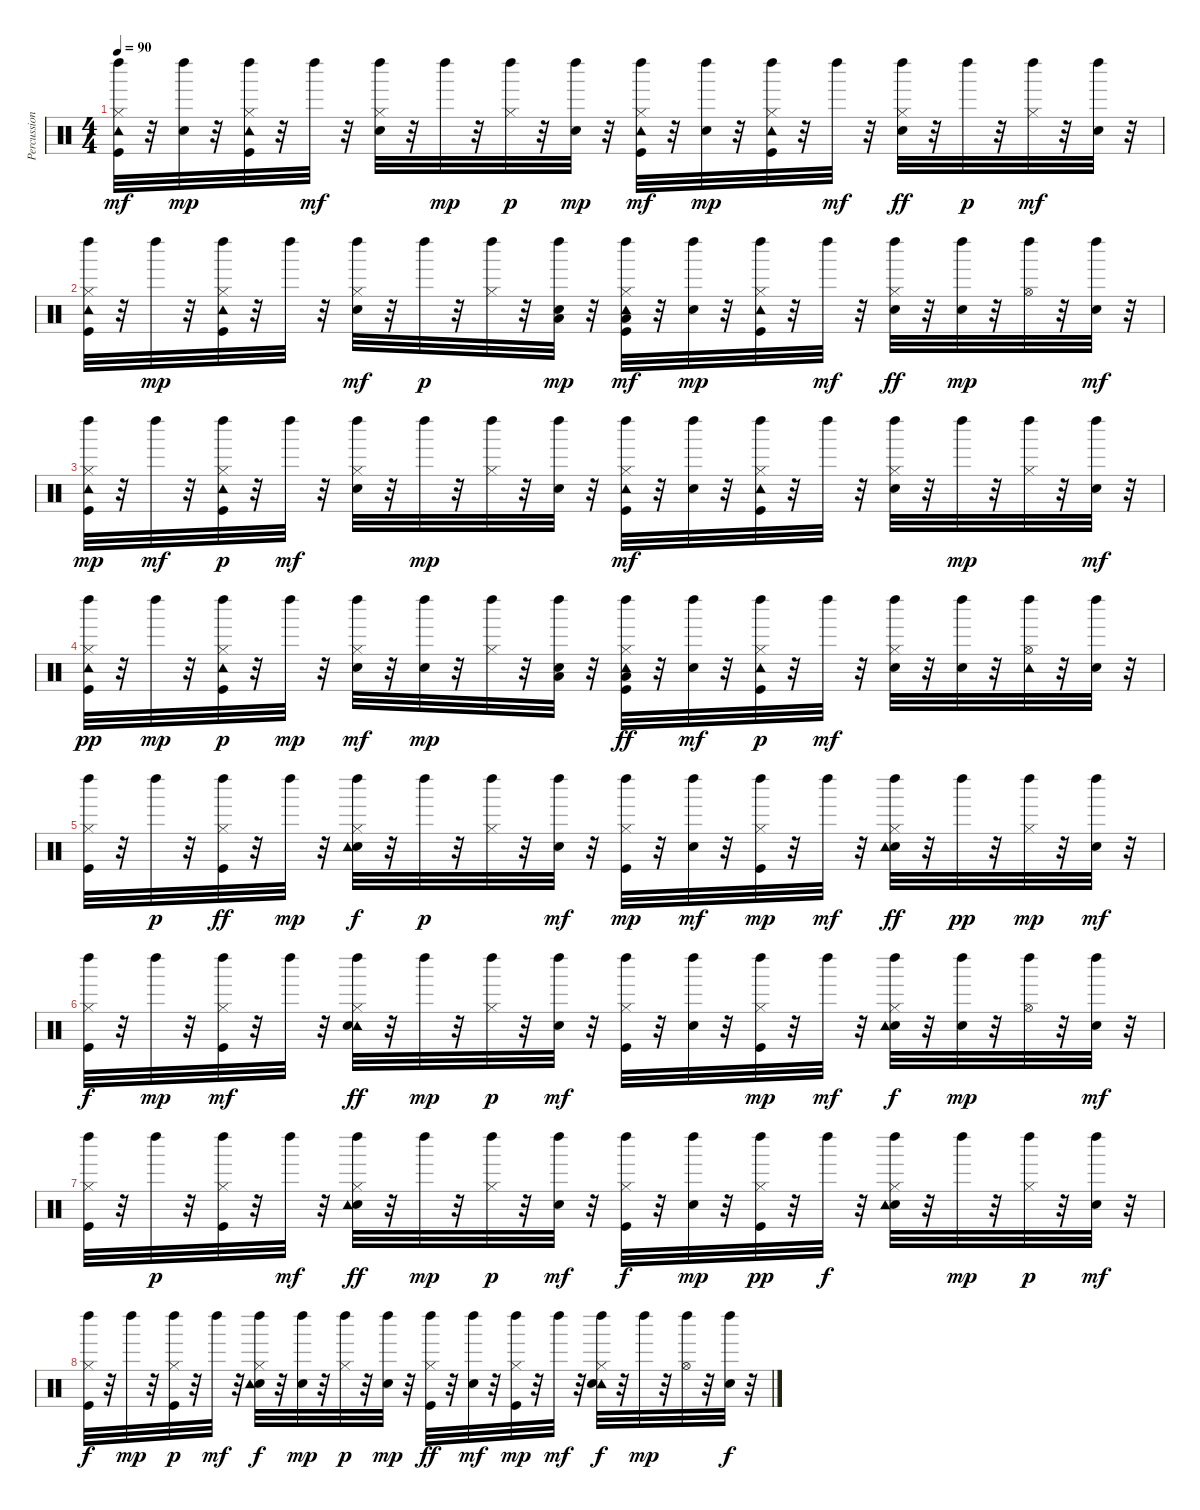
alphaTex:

\track ("Percussions" "Percussion") {instrument percussion}
\staff {score}
\articulation defaults
\ts (4 4)
\tempo 90
\clef neutral
\ks c
("Tambourine (hit)" "Kick (hit)" "Left Maraca (hit)" "Hi-Hat (closed)").32{dy mf} r.32 ("Electric Snare (hit)" "Left Maraca (hit)").32{dy mp} r.32 ("Kick (hit)" "Hi-Hat (closed)" "Tambourine (hit)" "Left Maraca (hit)").32 r.32 "Left Maraca (hit)".32{dy mf} r.32 ("Hi-Hat (closed)" "Left Maraca (hit)" "Electric Snare (hit)").32 r.32 "Left Maraca (hit)".32{dy mp} r.32 ("Hi-Hat (closed)" "Left Maraca (hit)").32{dy p} r.32 ("Electric Snare (hit)" "Left Maraca (hit)").32{dy mp} r.32 ("Kick (hit)" "Tambourine (hit)" "Hi-Hat (closed)" "Left Maraca (hit)").32{dy mf} r.32 ("Electric Snare (hit)" "Left Maraca (hit)").32{dy mp} r.32 ("Kick (hit)" "Tambourine (hit)" "Hi-Hat (closed)" "Left Maraca (hit)").32 r.32 "Left Maraca (hit)".32{dy mf} r.32 ("Left Maraca (hit)" "Hi-Hat (closed)" "Electric Snare (hit)").32{dy ff} r.32 "Left Maraca (hit)".32{dy p} r.32 ("Left Maraca (hit)" "Hi-Hat (closed)").32{dy mf} r.32 ("Left Maraca (hit)" "Electric Snare (hit)").32 r.32 |
("Kick (hit)" "Tambourine (hit)" "Left Maraca (hit)" "Hi-Hat (closed)").32 r.32 "Left Maraca (hit)".32{dy mp} r.32 ("Hi-Hat (closed)" "Kick (hit)" "Tambourine (hit)" "Left Maraca (hit)").32 r.32 "Left Maraca (hit)".32 r.32 ("Hi-Hat (closed)" "Electric Snare (hit)" "Left Maraca (hit)").32{dy mf} r.32 "Left Maraca (hit)".32{dy p} r.32 ("Hi-Hat (closed)" "Left Maraca (hit)").32 r.32 ("Low Tom (hit)" "Electric Snare (hit)" "Left Maraca (hit)").32{dy mp} r.32 ("Kick (hit)" "Low Floor Tom (hit)" "Tambourine (hit)" "Left Maraca (hit)" "Hi-Hat (closed)").32{dy mf} r.32 ("Electric Snare (hit)" "Left Maraca (hit)").32{dy mp} r.32 ("Kick (hit)" "Tambourine (hit)" "Hi-Hat (closed)" "Left Maraca (hit)").32 r.32 "Left Maraca (hit)".32{dy mf} r.32 ("Electric Snare (hit)" "Left Maraca (hit)" "Hi-Hat (closed)").32{dy ff} r.32 ("Electric Snare (hit)" "Left Maraca (hit)").32{dy mp} r.32 ("Hi-Hat (open)" "Left Maraca (hit)").32 r.32 ("Electric Snare (hit)" "Left Maraca (hit)").32{dy mf} r.32 |
("Kick (hit)" "Tambourine (hit)" "Left Maraca (hit)" "Hi-Hat (closed)").32{dy mp} r.32 "Left Maraca (hit)".32{dy mf} r.32 ("Left Maraca (hit)" "Kick (hit)" "Hi-Hat (closed)" "Tambourine (hit)").32{dy p} r.32 "Left Maraca (hit)".32{dy mf} r.32 ("Hi-Hat (closed)" "Electric Snare (hit)" "Left Maraca (hit)").32 r.32 "Left Maraca (hit)".32{dy mp} r.32 ("Hi-Hat (closed)" "Left Maraca (hit)").32 r.32 ("Electric Snare (hit)" "Left Maraca (hit)").32 r.32 ("Kick (hit)" "Tambourine (hit)" "Hi-Hat (closed)" "Left Maraca (hit)").32{dy mf} r.32 ("Electric Snare (hit)" "Left Maraca (hit)").32 r.32 ("Kick (hit)" "Tambourine (hit)" "Hi-Hat (closed)" "Left Maraca (hit)").32 r.32 "Left Maraca (hit)".32 r.32 ("Left Maraca (hit)" "Hi-Hat (closed)" "Electric Snare (hit)").32 r.32 "Left Maraca (hit)".32{dy mp} r.32 ("Hi-Hat (closed)" "Left Maraca (hit)").32 r.32 ("Left Maraca (hit)" "Electric Snare (hit)").32{dy mf} r.32 |
("Left Maraca (hit)" "Kick (hit)" "Tambourine (hit)" "Hi-Hat (closed)").32{dy pp} r.32 "Left Maraca (hit)".32{dy mp} r.32 ("Left Maraca (hit)" "Hi-Hat (closed)" "Kick (hit)" "Tambourine (hit)").32{dy p} r.32 "Left Maraca (hit)".32{dy mp} r.32 ("Electric Snare (hit)" "Hi-Hat (closed)" "Left Maraca (hit)").32{dy mf} r.32 ("Left Maraca (hit)" "Electric Snare (hit)").32{dy mp} r.32 ("Hi-Hat (closed)" "Left Maraca (hit)").32 r.32 ("Electric Snare (hit)" "Low Tom (hit)" "Left Maraca (hit)").32 r.32 ("Low Floor Tom (hit)" "Tambourine (hit)" "Left Maraca (hit)" "Kick (hit)" "Hi-Hat (closed)").32{dy ff} r.32 ("Electric Snare (hit)" "Left Maraca (hit)").32{dy mf} r.32 ("Kick (hit)" "Left Maraca (hit)" "Hi-Hat (closed)" "Tambourine (hit)").32{dy p} r.32 "Left Maraca (hit)".32{dy mf} r.32 ("Electric Snare (hit)" "Hi-Hat (closed)" "Left Maraca (hit)").32 r.32 ("Electric Snare (hit)" "Left Maraca (hit)").32 r.32 ("Hi-Hat (open)" "Tambourine (hit)" "Left Maraca (hit)").32 r.32 ("Electric Snare (hit)" "Left Maraca (hit)").32 r.32 |
("Kick (hit)" "Hi-Hat (closed)" "Left Maraca (hit)").32 r.32 "Left Maraca (hit)".32{dy p} r.32 ("Left Maraca (hit)" "Hi-Hat (closed)" "Kick (hit)").32{dy ff} r.32 "Left Maraca (hit)".32{dy mp} r.32 ("Electric Snare (hit)" "Hi-Hat (closed)" "Tambourine (hit)" "Left Maraca (hit)").32{dy f} r.32 "Left Maraca (hit)".32{dy p} r.32 ("Hi-Hat (closed)" "Left Maraca (hit)").32 r.32 ("Electric Snare (hit)" "Left Maraca (hit)").32{dy mf} r.32 ("Hi-Hat (closed)" "Kick (hit)" "Left Maraca (hit)").32{dy mp} r.32 ("Electric Snare (hit)" "Left Maraca (hit)").32{dy mf} r.32 ("Kick (hit)" "Hi-Hat (closed)" "Left Maraca (hit)").32{dy mp} r.32 "Left Maraca (hit)".32{dy mf} r.32 ("Electric Snare (hit)" "Tambourine (hit)" "Hi-Hat (closed)" "Left Maraca (hit)").32{dy ff} r.32 "Left Maraca (hit)".32{dy pp} r.32 ("Hi-Hat (closed)" "Left Maraca (hit)").32{dy mp} r.32 ("Electric Snare (hit)" "Left Maraca (hit)").32{dy mf} r.32 |
("Kick (hit)" "Left Maraca (hit)" "Hi-Hat (closed)").32{dy f} r.32 "Left Maraca (hit)".32{dy mp} r.32 ("Kick (hit)" "Left Maraca (hit)" "Hi-Hat (closed)").32{dy mf} r.32 "Left Maraca (hit)".32 r.32 ("Tambourine (hit)" "Left Maraca (hit)" "Hi-Hat (closed)" "Electric Snare (hit)").32{dy ff} r.32 "Left Maraca (hit)".32{dy mp} r.32 ("Hi-Hat (closed)" "Left Maraca (hit)").32{dy p} r.32 ("Left Maraca (hit)" "Electric Snare (hit)").32{dy mf} r.32 ("Hi-Hat (closed)" "Left Maraca (hit)" "Kick (hit)").32 r.32 ("Left Maraca (hit)" "Electric Snare (hit)").32 r.32 ("Hi-Hat (closed)" "Kick (hit)" "Left Maraca (hit)").32{dy mp} r.32 "Left Maraca (hit)".32{dy mf} r.32 ("Hi-Hat (closed)" "Electric Snare (hit)" "Tambourine (hit)" "Left Maraca (hit)").32{dy f} r.32 ("Electric Snare (hit)" "Left Maraca (hit)").32{dy mp} r.32 ("Hi-Hat (open)" "Left Maraca (hit)").32 r.32 ("Electric Snare (hit)" "Left Maraca (hit)").32{dy mf} r.32 |
("Hi-Hat (closed)" "Kick (hit)" "Left Maraca (hit)").32 r.32 "Left Maraca (hit)".32{dy p} r.32 ("Hi-Hat (closed)" "Kick (hit)" "Left Maraca (hit)").32 r.32 "Left Maraca (hit)".32{dy mf} r.32 ("Hi-Hat (closed)" "Electric Snare (hit)" "Tambourine (hit)" "Left Maraca (hit)").32{dy ff} r.32 "Left Maraca (hit)".32{dy mp} r.32 ("Hi-Hat (closed)" "Left Maraca (hit)").32{dy p} r.32 ("Electric Snare (hit)" "Left Maraca (hit)").32{dy mf} r.32 ("Hi-Hat (closed)" "Kick (hit)" "Left Maraca (hit)").32{dy f} r.32 ("Electric Snare (hit)" "Left Maraca (hit)").32{dy mp} r.32 ("Hi-Hat (closed)" "Kick (hit)" "Left Maraca (hit)").32{dy pp} r.32 "Left Maraca (hit)".32{dy f} r.32 ("Electric Snare (hit)" "Tambourine (hit)" "Left Maraca (hit)" "Hi-Hat (closed)").32 r.32 "Left Maraca (hit)".32{dy mp} r.32 ("Hi-Hat (closed)" "Left Maraca (hit)").32{dy p} r.32 ("Left Maraca (hit)" "Electric Snare (hit)").32{dy mf} r.32 |
("Left Maraca (hit)" "Hi-Hat (closed)" "Kick (hit)").32{dy f} r.32 "Left Maraca (hit)".32{dy mp} r.32 ("Hi-Hat (closed)" "Kick (hit)" "Left Maraca (hit)").32{dy p} r.32 "Left Maraca (hit)".32{dy mf} r.32 ("Electric Snare (hit)" "Tambourine (hit)" "Left Maraca (hit)" "Hi-Hat (closed)").32{dy f} r.32 ("Electric Snare (hit)" "Left Maraca (hit)").32{dy mp} r.32 ("Hi-Hat (closed)" "Left Maraca (hit)").32{dy p} r.32 ("Left Maraca (hit)" "Electric Snare (hit)").32{dy mp} r.32 ("Left Maraca (hit)" "Hi-Hat (closed)" "Kick (hit)").32{dy ff} r.32 ("Left Maraca (hit)" "Electric Snare (hit)").32{dy mf} r.32 ("Kick (hit)" "Hi-Hat (closed)" "Left Maraca (hit)").32{dy mp} r.32 "Left Maraca (hit)".32{dy mf} r.32 ("Tambourine (hit)" "Left Maraca (hit)" "Hi-Hat (closed)" "Electric Snare (hit)").32{dy f} r.32 "Left Maraca (hit)".32{dy mp} r.32 ("Hi-Hat (open)" "Left Maraca (hit)").32 r.32 ("Left Maraca (hit)" "Electric Snare (hit)").32{dy f} r.32
